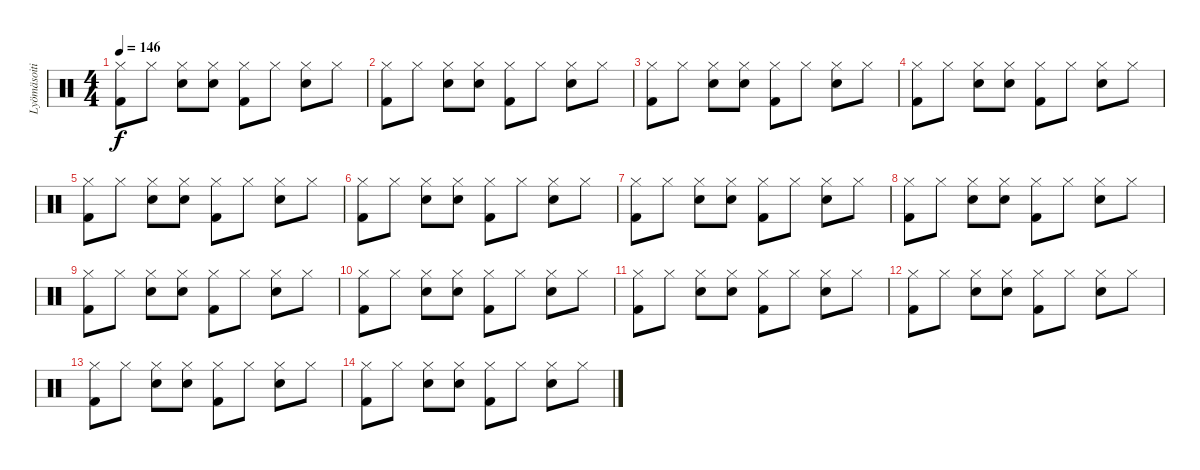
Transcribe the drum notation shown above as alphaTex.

\track ("Lyömäsoitin" "Lyömäsoiti") {instrument percussion}
\staff {score}
\articulation defaults
\ts (4 4)
\tempo 146
\clef neutral
\ks c
("Hi-Hat (closed)" "Kick (hit) 2").8{dy f} "Hi-Hat (closed)".8 ("Hi-Hat (closed)" "Electric Snare (hit)").8 ("Hi-Hat (closed)" "Electric Snare (hit)").8 ("Hi-Hat (closed)" "Kick (hit) 2").8 "Hi-Hat (closed)".8 ("Hi-Hat (closed)" "Electric Snare (hit)").8 "Hi-Hat (closed)".8 |
("Hi-Hat (closed)" "Kick (hit) 2").8 "Hi-Hat (closed)".8 ("Hi-Hat (closed)" "Electric Snare (hit)").8 ("Hi-Hat (closed)" "Electric Snare (hit)").8 ("Hi-Hat (closed)" "Kick (hit) 2").8 "Hi-Hat (closed)".8 ("Hi-Hat (closed)" "Electric Snare (hit)").8 "Hi-Hat (closed)".8 |
("Hi-Hat (closed)" "Kick (hit) 2").8 "Hi-Hat (closed)".8 ("Hi-Hat (closed)" "Electric Snare (hit)").8 ("Hi-Hat (closed)" "Electric Snare (hit)").8 ("Hi-Hat (closed)" "Kick (hit) 2").8 "Hi-Hat (closed)".8 ("Hi-Hat (closed)" "Electric Snare (hit)").8 "Hi-Hat (closed)".8 |
("Hi-Hat (closed)" "Kick (hit) 2").8 "Hi-Hat (closed)".8 ("Hi-Hat (closed)" "Electric Snare (hit)").8 ("Hi-Hat (closed)" "Electric Snare (hit)").8 ("Hi-Hat (closed)" "Kick (hit) 2").8 "Hi-Hat (closed)".8 ("Hi-Hat (closed)" "Electric Snare (hit)").8 "Hi-Hat (closed)".8 |
("Hi-Hat (closed)" "Kick (hit) 2").8 "Hi-Hat (closed)".8 ("Hi-Hat (closed)" "Electric Snare (hit)").8 ("Hi-Hat (closed)" "Electric Snare (hit)").8 ("Hi-Hat (closed)" "Kick (hit) 2").8 "Hi-Hat (closed)".8 ("Hi-Hat (closed)" "Electric Snare (hit)").8 "Hi-Hat (closed)".8 |
("Hi-Hat (closed)" "Kick (hit) 2").8 "Hi-Hat (closed)".8 ("Hi-Hat (closed)" "Electric Snare (hit)").8 ("Hi-Hat (closed)" "Electric Snare (hit)").8 ("Hi-Hat (closed)" "Kick (hit) 2").8 "Hi-Hat (closed)".8 ("Hi-Hat (closed)" "Electric Snare (hit)").8 "Hi-Hat (closed)".8 |
("Hi-Hat (closed)" "Kick (hit) 2").8 "Hi-Hat (closed)".8 ("Hi-Hat (closed)" "Electric Snare (hit)").8 ("Hi-Hat (closed)" "Electric Snare (hit)").8 ("Hi-Hat (closed)" "Kick (hit) 2").8 "Hi-Hat (closed)".8 ("Hi-Hat (closed)" "Electric Snare (hit)").8 "Hi-Hat (closed)".8 |
("Hi-Hat (closed)" "Kick (hit) 2").8 "Hi-Hat (closed)".8 ("Hi-Hat (closed)" "Electric Snare (hit)").8 ("Hi-Hat (closed)" "Electric Snare (hit)").8 ("Hi-Hat (closed)" "Kick (hit) 2").8 "Hi-Hat (closed)".8 ("Hi-Hat (closed)" "Electric Snare (hit)").8 "Hi-Hat (closed)".8 |
("Hi-Hat (closed)" "Kick (hit) 2").8 "Hi-Hat (closed)".8 ("Hi-Hat (closed)" "Electric Snare (hit)").8 ("Hi-Hat (closed)" "Electric Snare (hit)").8 ("Hi-Hat (closed)" "Kick (hit) 2").8 "Hi-Hat (closed)".8 ("Hi-Hat (closed)" "Electric Snare (hit)").8 "Hi-Hat (closed)".8 |
("Hi-Hat (closed)" "Kick (hit) 2").8 "Hi-Hat (closed)".8 ("Hi-Hat (closed)" "Electric Snare (hit)").8 ("Hi-Hat (closed)" "Electric Snare (hit)").8 ("Hi-Hat (closed)" "Kick (hit) 2").8 "Hi-Hat (closed)".8 ("Hi-Hat (closed)" "Electric Snare (hit)").8 "Hi-Hat (closed)".8 |
("Hi-Hat (closed)" "Kick (hit) 2").8 "Hi-Hat (closed)".8 ("Hi-Hat (closed)" "Electric Snare (hit)").8 ("Hi-Hat (closed)" "Electric Snare (hit)").8 ("Hi-Hat (closed)" "Kick (hit) 2").8 "Hi-Hat (closed)".8 ("Hi-Hat (closed)" "Electric Snare (hit)").8 "Hi-Hat (closed)".8 |
("Hi-Hat (closed)" "Kick (hit) 2").8 "Hi-Hat (closed)".8 ("Hi-Hat (closed)" "Electric Snare (hit)").8 ("Hi-Hat (closed)" "Electric Snare (hit)").8 ("Hi-Hat (closed)" "Kick (hit) 2").8 "Hi-Hat (closed)".8 ("Hi-Hat (closed)" "Electric Snare (hit)").8 "Hi-Hat (closed)".8 |
("Hi-Hat (closed)" "Kick (hit) 2").8 "Hi-Hat (closed)".8 ("Hi-Hat (closed)" "Electric Snare (hit)").8 ("Hi-Hat (closed)" "Electric Snare (hit)").8 ("Hi-Hat (closed)" "Kick (hit) 2").8 "Hi-Hat (closed)".8 ("Hi-Hat (closed)" "Electric Snare (hit)").8 "Hi-Hat (closed)".8 |
("Hi-Hat (closed)" "Kick (hit) 2").8 "Hi-Hat (closed)".8 ("Hi-Hat (closed)" "Electric Snare (hit)").8 ("Hi-Hat (closed)" "Electric Snare (hit)").8 ("Hi-Hat (closed)" "Kick (hit) 2").8 "Hi-Hat (closed)".8 ("Hi-Hat (closed)" "Electric Snare (hit)").8 "Hi-Hat (closed)".8
